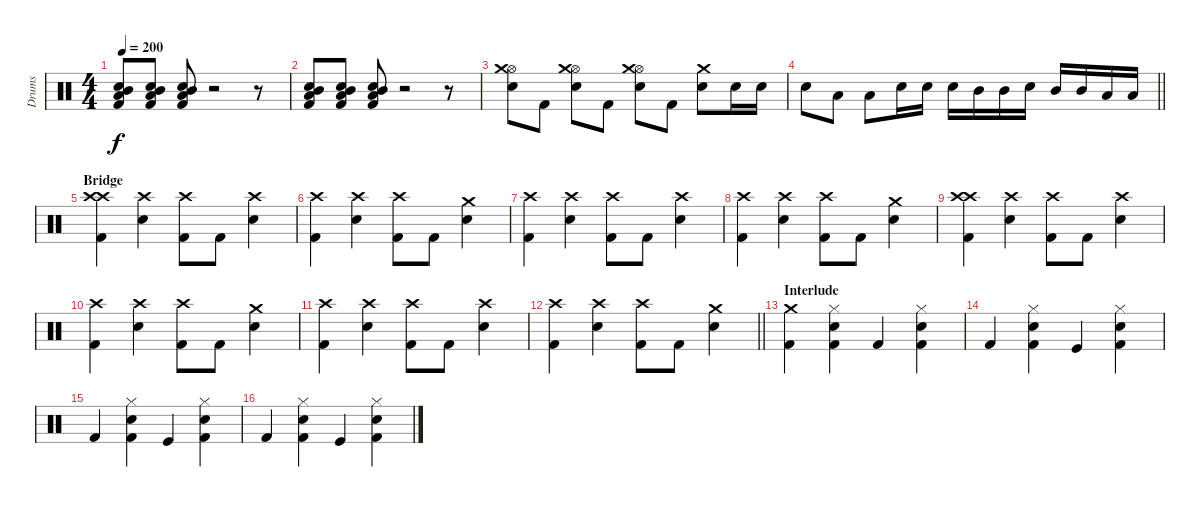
\track ("Drums" "Drums") {instrument percussion}
\staff {score}
\articulation defaults
\ts (4 4)
\tempo 200
\clef neutral
\ks c
("Low Floor Tom (hit)" "Mid Tom (hit)" "Snare (hit) 2" "Kick (hit) 2").8{dy f volume 8} ("Low Floor Tom (hit)" "Mid Tom (hit)" "Snare (hit) 2" "Kick (hit) 2").8 ("Low Floor Tom (hit)" "Mid Tom (hit)" "Snare (hit) 2" "Kick (hit) 2").8 r.2 r.8 |
("Low Floor Tom (hit)" "Mid Tom (hit)" "Snare (hit) 2" "Kick (hit) 2").8 ("Low Floor Tom (hit)" "Mid Tom (hit)" "Snare (hit) 2" "Kick (hit) 2").8 ("Low Floor Tom (hit)" "Mid Tom (hit)" "Snare (hit) 2" "Kick (hit) 2").8 r.2 r.8 |
("Hi-Hat (open)" "Electric Snare (hit)" "Crash medium (hit)").8 "Kick (hit) 2".8 ("Hi-Hat (open)" "Electric Snare (hit)" "Crash medium (hit)").8 "Kick (hit) 2".8 ("Hi-Hat (open)" "Electric Snare (hit)" "Crash medium (hit)").8 "Kick (hit) 2".8 ("Electric Snare (hit)" "Crash medium (hit)").8 "Electric Snare (hit)".16{volume 12} "Electric Snare (hit)".16 |
\barLineRight lightlight "Electric Snare (hit)".8 "Low Floor Tom (hit)".8 "Low Floor Tom (hit)".8 "Electric Snare (hit)".16 "Electric Snare (hit)".16 "Electric Snare (hit)".16 "Mid Tom (hit)".16 "Mid Tom (hit)".16 "Electric Snare (hit)".16 "Mid Tom (hit)".16 "Mid Tom (hit)".16 "Low Floor Tom (hit)".16 "Low Floor Tom (hit)".16
|
\section ("" "Bridge")
("Crash high (hit)" "Crash high (hit)" "Kick (hit) 2").4{volume 8} ("Crash high (hit)" "Electric Snare (hit)").4 ("Crash high (hit)" "Kick (hit) 2").8 "Kick (hit) 2".8 ("Crash high (hit)" "Electric Snare (hit)").4 |
("Crash high (hit)" "Kick (hit) 2").4 ("Crash high (hit)" "Electric Snare (hit)").4 ("Crash high (hit)" "Kick (hit) 2").8 "Kick (hit) 2".8 ("Crash medium (hit)" "Electric Snare (hit)").4 |
("Crash high (hit)" "Kick (hit) 2").4 ("Crash high (hit)" "Electric Snare (hit)").4 ("Crash high (hit)" "Kick (hit) 2").8 "Kick (hit) 2".8 ("Crash high (hit)" "Electric Snare (hit)").4 |
("Crash high (hit)" "Kick (hit) 2").4 ("Crash high (hit)" "Electric Snare (hit)").4 ("Crash high (hit)" "Kick (hit) 2").8 "Kick (hit) 2".8 ("Crash medium (hit)" "Electric Snare (hit)").4 |
("Crash high (hit)" "Crash high (hit)" "Kick (hit) 2").4 ("Crash high (hit)" "Electric Snare (hit)").4 ("Crash high (hit)" "Kick (hit) 2").8 "Kick (hit) 2".8 ("Crash high (hit)" "Electric Snare (hit)").4 |
("Crash high (hit)" "Kick (hit) 2").4 ("Crash high (hit)" "Electric Snare (hit)").4 ("Crash high (hit)" "Kick (hit) 2").8 "Kick (hit) 2".8 ("Crash medium (hit)" "Electric Snare (hit)").4 |
("Crash high (hit)" "Kick (hit) 2").4 ("Crash high (hit)" "Electric Snare (hit)").4 ("Crash high (hit)" "Kick (hit) 2").8 "Kick (hit) 2".8 ("Crash high (hit)" "Electric Snare (hit)").4 |
\barLineRight lightlight
("Crash high (hit)" "Kick (hit) 2").4 ("Crash high (hit)" "Electric Snare (hit)").4 ("Crash high (hit)" "Kick (hit) 2").8 "Kick (hit) 2".8 ("Crash medium (hit)" "Electric Snare (hit)").4 |
\section ("" "Interlude")
("Crash medium (hit)" "Kick (hit) 2").4 ("Hi-Hat (closed)" "Snare (hit) 2" "Kick (hit) 2").4 "Kick (hit) 2".4 ("Hi-Hat (closed)" "Snare (hit) 2" "Kick (hit) 2").4 |
"Kick (hit) 2".4 ("Hi-Hat (closed)" "Snare (hit) 2" "Kick (hit) 2").4 "Kick (hit)".4 ("Hi-Hat (closed)" "Snare (hit) 2" "Kick (hit) 2").4 |
"Kick (hit) 2".4 ("Hi-Hat (closed)" "Snare (hit) 2" "Kick (hit) 2").4 "Kick (hit)".4 ("Hi-Hat (closed)" "Snare (hit) 2" "Kick (hit) 2").4 |
"Kick (hit) 2".4 ("Hi-Hat (closed)" "Snare (hit) 2" "Kick (hit) 2").4 "Kick (hit)".4 ("Hi-Hat (closed)" "Snare (hit) 2" "Kick (hit) 2").4
